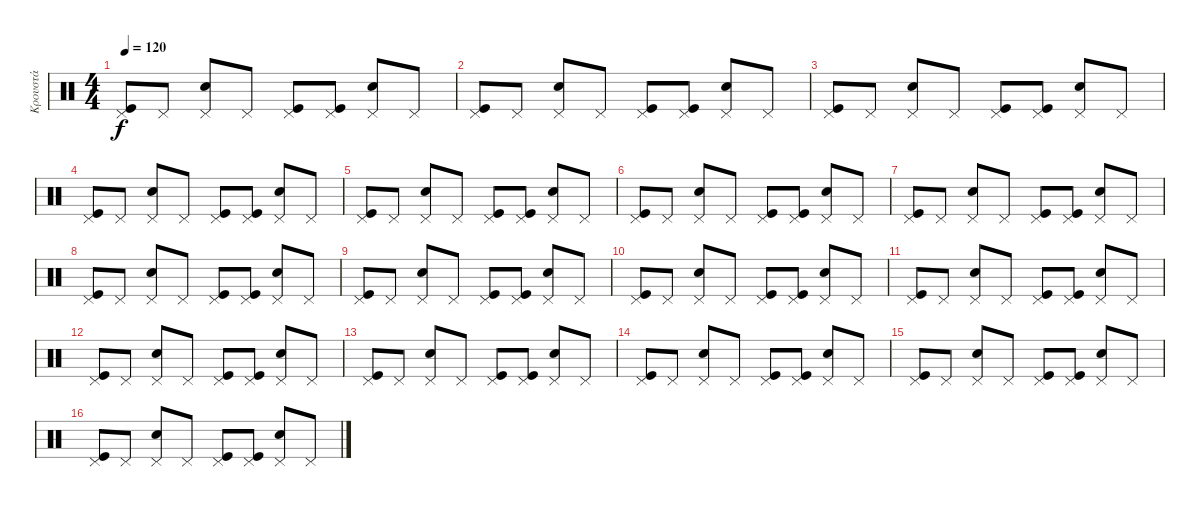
\track ("Κρουστά" "Κρουστά") {instrument percussion}
\staff {score}
\articulation defaults
\ts (4 4)
\tempo 120
\clef neutral
\ks c
("Pedal Hi-Hat (hit)" "Kick (hit)").8{dy f} "Pedal Hi-Hat (hit)".8 ("Pedal Hi-Hat (hit)" "Snare (hit) 2").8 "Pedal Hi-Hat (hit)".8 ("Pedal Hi-Hat (hit)" "Kick (hit)").8 ("Pedal Hi-Hat (hit)" "Kick (hit)").8 ("Pedal Hi-Hat (hit)" "Snare (hit) 2").8 "Pedal Hi-Hat (hit)".8 |
("Pedal Hi-Hat (hit)" "Kick (hit)").8 "Pedal Hi-Hat (hit)".8 ("Pedal Hi-Hat (hit)" "Snare (hit) 2").8 "Pedal Hi-Hat (hit)".8 ("Pedal Hi-Hat (hit)" "Kick (hit)").8 ("Pedal Hi-Hat (hit)" "Kick (hit)").8 ("Pedal Hi-Hat (hit)" "Snare (hit) 2").8 "Pedal Hi-Hat (hit)".8 |
("Pedal Hi-Hat (hit)" "Kick (hit)").8 "Pedal Hi-Hat (hit)".8 ("Pedal Hi-Hat (hit)" "Snare (hit) 2").8 "Pedal Hi-Hat (hit)".8 ("Pedal Hi-Hat (hit)" "Kick (hit)").8 ("Pedal Hi-Hat (hit)" "Kick (hit)").8 ("Pedal Hi-Hat (hit)" "Snare (hit) 2").8 "Pedal Hi-Hat (hit)".8 |
("Pedal Hi-Hat (hit)" "Kick (hit)").8 "Pedal Hi-Hat (hit)".8 ("Pedal Hi-Hat (hit)" "Snare (hit) 2").8 "Pedal Hi-Hat (hit)".8 ("Pedal Hi-Hat (hit)" "Kick (hit)").8 ("Pedal Hi-Hat (hit)" "Kick (hit)").8 ("Pedal Hi-Hat (hit)" "Snare (hit) 2").8 "Pedal Hi-Hat (hit)".8 |
("Pedal Hi-Hat (hit)" "Kick (hit)").8 "Pedal Hi-Hat (hit)".8 ("Pedal Hi-Hat (hit)" "Snare (hit) 2").8 "Pedal Hi-Hat (hit)".8 ("Pedal Hi-Hat (hit)" "Kick (hit)").8 ("Pedal Hi-Hat (hit)" "Kick (hit)").8 ("Pedal Hi-Hat (hit)" "Snare (hit) 2").8 "Pedal Hi-Hat (hit)".8 |
("Pedal Hi-Hat (hit)" "Kick (hit)").8 "Pedal Hi-Hat (hit)".8 ("Pedal Hi-Hat (hit)" "Snare (hit) 2").8 "Pedal Hi-Hat (hit)".8 ("Pedal Hi-Hat (hit)" "Kick (hit)").8 ("Pedal Hi-Hat (hit)" "Kick (hit)").8 ("Pedal Hi-Hat (hit)" "Snare (hit) 2").8 "Pedal Hi-Hat (hit)".8 |
("Pedal Hi-Hat (hit)" "Kick (hit)").8 "Pedal Hi-Hat (hit)".8 ("Pedal Hi-Hat (hit)" "Snare (hit) 2").8 "Pedal Hi-Hat (hit)".8 ("Pedal Hi-Hat (hit)" "Kick (hit)").8 ("Pedal Hi-Hat (hit)" "Kick (hit)").8 ("Pedal Hi-Hat (hit)" "Snare (hit) 2").8 "Pedal Hi-Hat (hit)".8 |
("Pedal Hi-Hat (hit)" "Kick (hit)").8 "Pedal Hi-Hat (hit)".8 ("Pedal Hi-Hat (hit)" "Snare (hit) 2").8 "Pedal Hi-Hat (hit)".8 ("Pedal Hi-Hat (hit)" "Kick (hit)").8 ("Pedal Hi-Hat (hit)" "Kick (hit)").8 ("Pedal Hi-Hat (hit)" "Snare (hit) 2").8 "Pedal Hi-Hat (hit)".8 |
("Pedal Hi-Hat (hit)" "Kick (hit)").8 "Pedal Hi-Hat (hit)".8 ("Pedal Hi-Hat (hit)" "Snare (hit) 2").8 "Pedal Hi-Hat (hit)".8 ("Pedal Hi-Hat (hit)" "Kick (hit)").8 ("Pedal Hi-Hat (hit)" "Kick (hit)").8 ("Pedal Hi-Hat (hit)" "Snare (hit) 2").8 "Pedal Hi-Hat (hit)".8 |
("Pedal Hi-Hat (hit)" "Kick (hit)").8 "Pedal Hi-Hat (hit)".8 ("Pedal Hi-Hat (hit)" "Snare (hit) 2").8 "Pedal Hi-Hat (hit)".8 ("Pedal Hi-Hat (hit)" "Kick (hit)").8 ("Pedal Hi-Hat (hit)" "Kick (hit)").8 ("Pedal Hi-Hat (hit)" "Snare (hit) 2").8 "Pedal Hi-Hat (hit)".8 |
("Pedal Hi-Hat (hit)" "Kick (hit)").8 "Pedal Hi-Hat (hit)".8 ("Pedal Hi-Hat (hit)" "Snare (hit) 2").8 "Pedal Hi-Hat (hit)".8 ("Pedal Hi-Hat (hit)" "Kick (hit)").8 ("Pedal Hi-Hat (hit)" "Kick (hit)").8 ("Pedal Hi-Hat (hit)" "Snare (hit) 2").8 "Pedal Hi-Hat (hit)".8 |
("Pedal Hi-Hat (hit)" "Kick (hit)").8 "Pedal Hi-Hat (hit)".8 ("Pedal Hi-Hat (hit)" "Snare (hit) 2").8 "Pedal Hi-Hat (hit)".8 ("Pedal Hi-Hat (hit)" "Kick (hit)").8 ("Pedal Hi-Hat (hit)" "Kick (hit)").8 ("Pedal Hi-Hat (hit)" "Snare (hit) 2").8 "Pedal Hi-Hat (hit)".8 |
("Pedal Hi-Hat (hit)" "Kick (hit)").8 "Pedal Hi-Hat (hit)".8 ("Pedal Hi-Hat (hit)" "Snare (hit) 2").8 "Pedal Hi-Hat (hit)".8 ("Pedal Hi-Hat (hit)" "Kick (hit)").8 ("Pedal Hi-Hat (hit)" "Kick (hit)").8 ("Pedal Hi-Hat (hit)" "Snare (hit) 2").8 "Pedal Hi-Hat (hit)".8 |
("Pedal Hi-Hat (hit)" "Kick (hit)").8 "Pedal Hi-Hat (hit)".8 ("Pedal Hi-Hat (hit)" "Snare (hit) 2").8 "Pedal Hi-Hat (hit)".8 ("Pedal Hi-Hat (hit)" "Kick (hit)").8 ("Pedal Hi-Hat (hit)" "Kick (hit)").8 ("Pedal Hi-Hat (hit)" "Snare (hit) 2").8 "Pedal Hi-Hat (hit)".8 |
("Pedal Hi-Hat (hit)" "Kick (hit)").8 "Pedal Hi-Hat (hit)".8 ("Pedal Hi-Hat (hit)" "Snare (hit) 2").8 "Pedal Hi-Hat (hit)".8 ("Pedal Hi-Hat (hit)" "Kick (hit)").8 ("Pedal Hi-Hat (hit)" "Kick (hit)").8 ("Pedal Hi-Hat (hit)" "Snare (hit) 2").8 "Pedal Hi-Hat (hit)".8 |
("Pedal Hi-Hat (hit)" "Kick (hit)").8 "Pedal Hi-Hat (hit)".8 ("Pedal Hi-Hat (hit)" "Snare (hit) 2").8 "Pedal Hi-Hat (hit)".8 ("Pedal Hi-Hat (hit)" "Kick (hit)").8 ("Pedal Hi-Hat (hit)" "Kick (hit)").8 ("Pedal Hi-Hat (hit)" "Snare (hit) 2").8 "Pedal Hi-Hat (hit)".8
